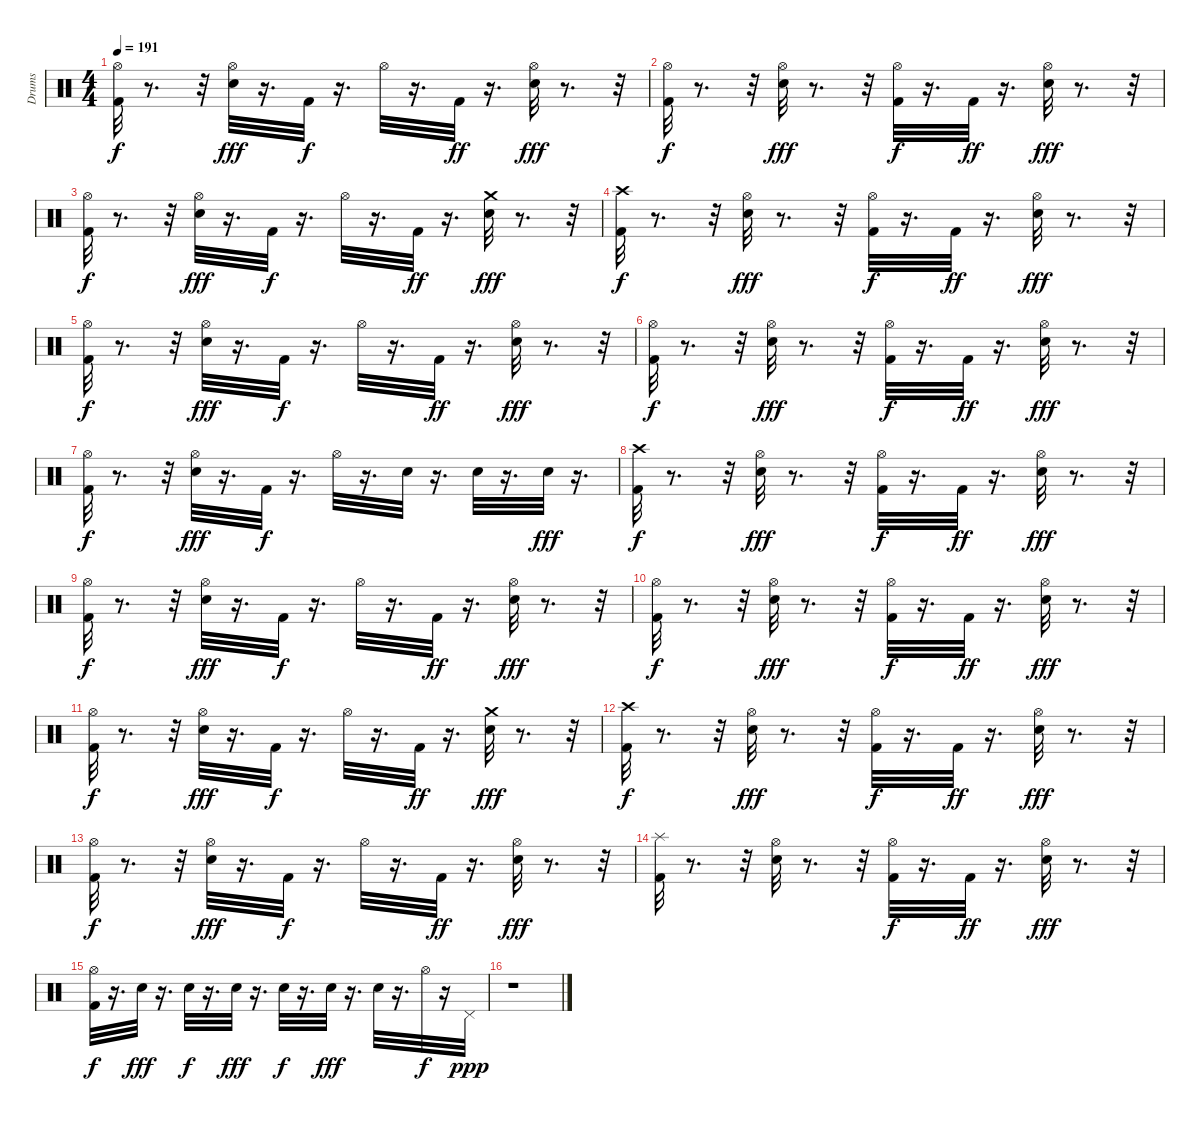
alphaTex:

\track ("Drums" "Drums") {instrument percussion}
\staff {score}
\articulation defaults
\ts (4 4)
\tempo 191
\clef neutral
\ks c
("Kick (hit) 2" "Hi-Hat (open)").32{dy f} r.8{d} r.32 ("Snare (hit) 2" "Hi-Hat (open)").32{dy fff} r.16{d} "Kick (hit) 2".32{dy f} r.16{d} "Hi-Hat (open)".32 r.16{d} "Kick (hit) 2".32{dy ff} r.16{d} ("Snare (hit) 2" "Hi-Hat (open)").32{dy fff} r.8{d} r.32 |
("Kick (hit) 2" "Hi-Hat (open)").32{dy f} r.8{d} r.32 ("Snare (hit) 2" "Hi-Hat (open)").32{dy fff} r.8{d} r.32 ("Kick (hit) 2" "Hi-Hat (open)").32{dy f} r.16{d} "Kick (hit) 2".32{dy ff} r.16{d} ("Snare (hit) 2" "Hi-Hat (open)").32{dy fff} r.8{d} r.32 |
("Kick (hit) 2" "Hi-Hat (open)").32{dy f} r.8{d} r.32 ("Snare (hit) 2" "Hi-Hat (open)").32{dy fff} r.16{d} "Kick (hit) 2".32{dy f} r.16{d} "Hi-Hat (open)".32 r.16{d} "Kick (hit) 2".32{dy ff} r.16{d} ("Snare (hit) 2" "Crash medium (hit)").32{dy fff} r.8{d} r.32 |
("Crash high (hit)" "Kick (hit) 2").32{dy f} r.8{d} r.32 ("Snare (hit) 2" "Hi-Hat (open)").32{dy fff} r.8{d} r.32 ("Kick (hit) 2" "Hi-Hat (open)").32{dy f} r.16{d} "Kick (hit) 2".32{dy ff} r.16{d} ("Snare (hit) 2" "Hi-Hat (open)").32{dy fff} r.8{d} r.32 |
("Kick (hit) 2" "Hi-Hat (open)").32{dy f} r.8{d} r.32 ("Snare (hit) 2" "Hi-Hat (open)").32{dy fff} r.16{d} "Kick (hit) 2".32{dy f} r.16{d} "Hi-Hat (open)".32 r.16{d} "Kick (hit) 2".32{dy ff} r.16{d} ("Snare (hit) 2" "Hi-Hat (open)").32{dy fff} r.8{d} r.32 |
("Kick (hit) 2" "Hi-Hat (open)").32{dy f} r.8{d} r.32 ("Snare (hit) 2" "Hi-Hat (open)").32{dy fff} r.8{d} r.32 ("Kick (hit) 2" "Hi-Hat (open)").32{dy f} r.16{d} "Kick (hit) 2".32{dy ff} r.16{d} ("Snare (hit) 2" "Hi-Hat (open)").32{dy fff} r.8{d} r.32 |
("Kick (hit) 2" "Hi-Hat (open)").32{dy f} r.8{d} r.32 ("Snare (hit) 2" "Hi-Hat (open)").32{dy fff} r.16{d} "Kick (hit) 2".32{dy f} r.16{d} "Hi-Hat (open)".32 r.16{d} "Snare (hit) 2".32 r.16{d} "Snare (hit) 2".32 r.16{d} "Snare (hit) 2".32{dy fff} r.16{d} |
("Crash high (hit)" "Kick (hit) 2").32{dy f} r.8{d} r.32 ("Snare (hit) 2" "Hi-Hat (open)").32{dy fff} r.8{d} r.32 ("Kick (hit) 2" "Hi-Hat (open)").32{dy f} r.16{d} "Kick (hit) 2".32{dy ff} r.16{d} ("Snare (hit) 2" "Hi-Hat (open)").32{dy fff} r.8{d} r.32 |
("Kick (hit) 2" "Hi-Hat (open)").32{dy f} r.8{d} r.32 ("Snare (hit) 2" "Hi-Hat (open)").32{dy fff} r.16{d} "Kick (hit) 2".32{dy f} r.16{d} "Hi-Hat (open)".32 r.16{d} "Kick (hit) 2".32{dy ff} r.16{d} ("Snare (hit) 2" "Hi-Hat (open)").32{dy fff} r.8{d} r.32 |
("Kick (hit) 2" "Hi-Hat (open)").32{dy f} r.8{d} r.32 ("Snare (hit) 2" "Hi-Hat (open)").32{dy fff} r.8{d} r.32 ("Kick (hit) 2" "Hi-Hat (open)").32{dy f} r.16{d} "Kick (hit) 2".32{dy ff} r.16{d} ("Snare (hit) 2" "Hi-Hat (open)").32{dy fff} r.8{d} r.32 |
("Kick (hit) 2" "Hi-Hat (open)").32{dy f} r.8{d} r.32 ("Snare (hit) 2" "Hi-Hat (open)").32{dy fff} r.16{d} "Kick (hit) 2".32{dy f} r.16{d} "Hi-Hat (open)".32 r.16{d} "Kick (hit) 2".32{dy ff} r.16{d} ("Snare (hit) 2" "Crash medium (hit)").32{dy fff} r.8{d} r.32 |
("Crash high (hit)" "Kick (hit) 2").32{dy f} r.8{d} r.32 ("Snare (hit) 2" "Hi-Hat (open)").32{dy fff} r.8{d} r.32 ("Kick (hit) 2" "Hi-Hat (open)").32{dy f} r.16{d} "Kick (hit) 2".32{dy ff} r.16{d} ("Snare (hit) 2" "Hi-Hat (open)").32{dy fff} r.8{d} r.32 |
("Kick (hit) 2" "Hi-Hat (open)").32{dy f} r.8{d} r.32 ("Snare (hit) 2" "Hi-Hat (open)").32{dy fff} r.16{d} "Kick (hit) 2".32{dy f} r.16{d} "Hi-Hat (open)".32 r.16{d} "Kick (hit) 2".32{dy ff} r.16{d} ("Snare (hit) 2" "Hi-Hat (open)").32{dy fff} r.8{d} r.32 |
("Splash (hit)" "Kick (hit) 2").32 r.8{d} r.32 ("Snare (hit) 2" "Hi-Hat (open)").32 r.8{d} r.32 ("Kick (hit) 2" "Hi-Hat (open)").32{dy f} r.16{d} "Kick (hit) 2".32{dy ff} r.16{d} ("Snare (hit) 2" "Hi-Hat (open)").32{dy fff} r.8{d} r.32 |
("Kick (hit) 2" "Hi-Hat (open)").32{dy f} r.16{d} "Snare (hit) 2".32{dy fff} r.16{d} "Snare (hit) 2".32{dy f} r.16{d} "Snare (hit) 2".32{dy fff} r.16{d} "Snare (hit) 2".32{dy f} r.16{d} "Snare (hit) 2".32{dy fff} r.16{d} "Snare (hit) 2".32 r.16{d} "Hi-Hat (open)".32{dy f} r.16 "Pedal Hi-Hat (hit)".32{dy ppp} |
r.1
